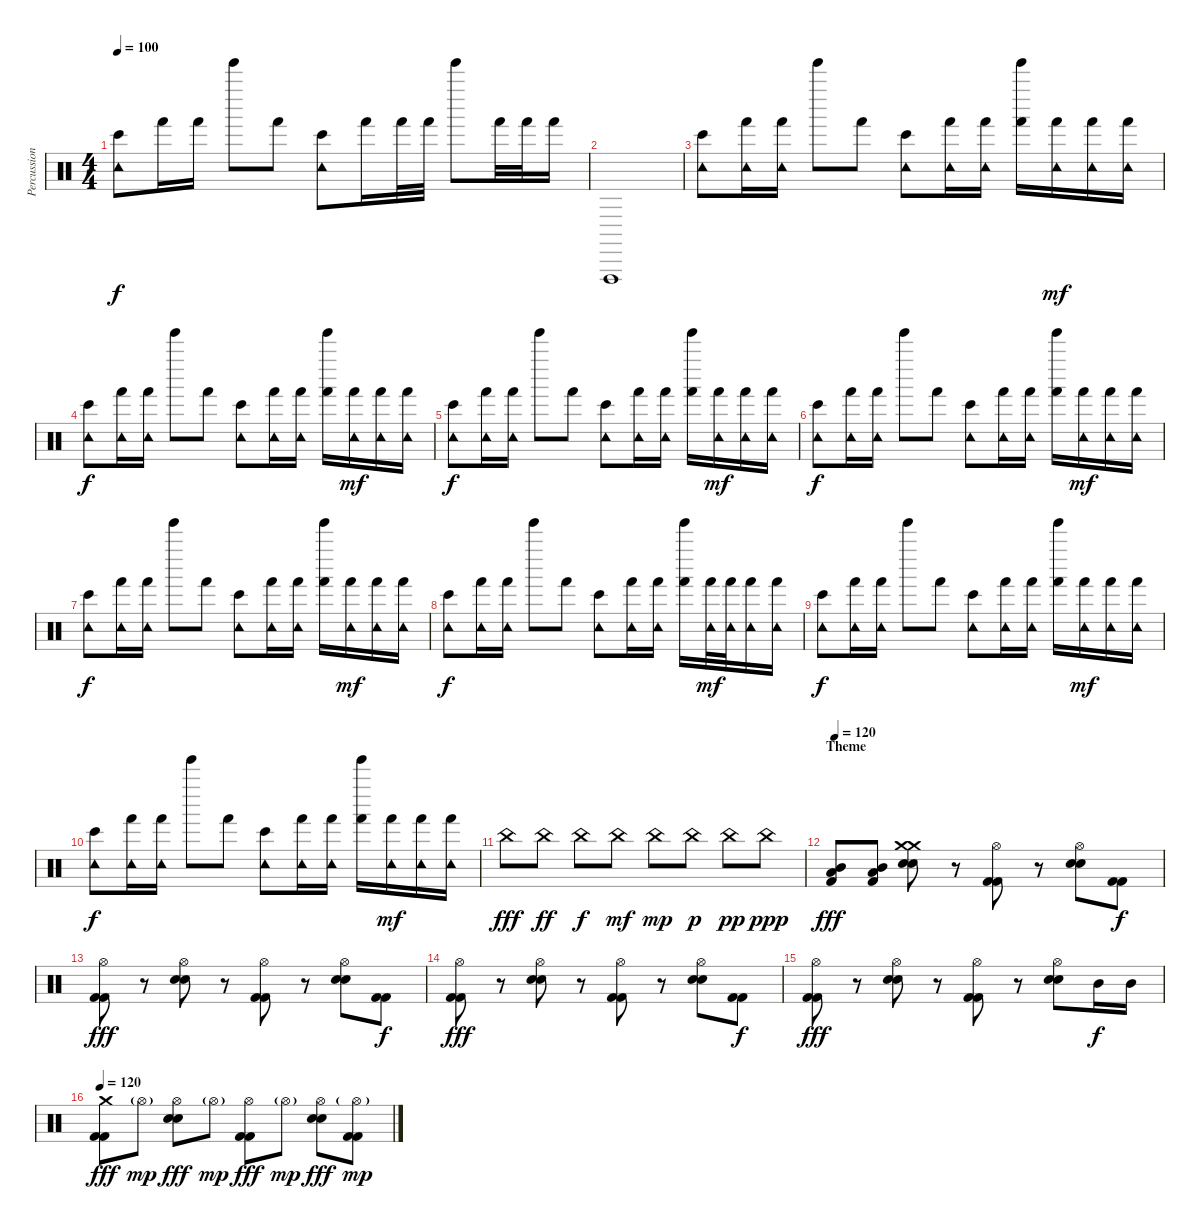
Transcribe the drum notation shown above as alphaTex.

\track ("Percussions" "Percussion") {instrument percussion}
\staff {score}
\articulation defaults
\ts (4 4)
\tempo 100
\clef neutral
\ks c
("Tambourine (hit)" "Bongo High (hit)").8{dy f} "Hand (hit)".16 "Hand (hit)".16 "Tinkle Bell (hit)".8 "Hand (hit)".8 ("Tambourine (hit)" "Bongo High (hit)").8 "Hand (hit)".16 "Hand (hit)".32 "Hand (hit)".32 "Tinkle Bell (hit)".8 "Hand (hit)".32 "Hand (hit)".32 "Hand (hit)".16 |
"Vibraslap (hit)".1 |
("Tambourine (hit)" "Bongo High (hit)").8 ("Tambourine (hit)" "Hand (hit)").16 ("Tambourine (hit)" "Hand (hit)").16 "Tinkle Bell (hit)".8 "Hand (hit)".8 ("Tambourine (hit)" "Bongo High (hit)").8 ("Tambourine (hit)" "Hand (hit)").16 ("Tambourine (hit)" "Hand (hit)").16 ("Tinkle Bell (hit)" "Hand (hit)").16 ("Tambourine (hit)" "Hand (hit)").16{dy mf} ("Tambourine (hit)" "Hand (hit)").16 ("Tambourine (hit)" "Hand (hit)").16 |
("Tambourine (hit)" "Bongo High (hit)").8{dy f} ("Tambourine (hit)" "Hand (hit)").16 ("Tambourine (hit)" "Hand (hit)").16 "Tinkle Bell (hit)".8 "Hand (hit)".8 ("Tambourine (hit)" "Bongo High (hit)").8 ("Tambourine (hit)" "Hand (hit)").16 ("Tambourine (hit)" "Hand (hit)").16 ("Tinkle Bell (hit)" "Hand (hit)").16 ("Tambourine (hit)" "Hand (hit)").16{dy mf} ("Tambourine (hit)" "Hand (hit)").16 ("Tambourine (hit)" "Hand (hit)").16 |
("Tambourine (hit)" "Bongo High (hit)").8{dy f} ("Tambourine (hit)" "Hand (hit)").16 ("Tambourine (hit)" "Hand (hit)").16 "Tinkle Bell (hit)".8 "Hand (hit)".8 ("Tambourine (hit)" "Bongo High (hit)").8 ("Tambourine (hit)" "Hand (hit)").16 ("Tambourine (hit)" "Hand (hit)").16 ("Tinkle Bell (hit)" "Hand (hit)").16 ("Tambourine (hit)" "Hand (hit)").16{dy mf} ("Tambourine (hit)" "Hand (hit)").16 ("Tambourine (hit)" "Hand (hit)").16 |
("Tambourine (hit)" "Bongo High (hit)").8{dy f} ("Tambourine (hit)" "Hand (hit)").16 ("Tambourine (hit)" "Hand (hit)").16 "Tinkle Bell (hit)".8 "Hand (hit)".8 ("Tambourine (hit)" "Bongo High (hit)").8 ("Tambourine (hit)" "Hand (hit)").16 ("Tambourine (hit)" "Hand (hit)").16 ("Tinkle Bell (hit)" "Hand (hit)").16 ("Tambourine (hit)" "Hand (hit)").16{dy mf} ("Tambourine (hit)" "Hand (hit)").16 ("Tambourine (hit)" "Hand (hit)").16 |
("Tambourine (hit)" "Bongo High (hit)").8{dy f} ("Tambourine (hit)" "Hand (hit)").16 ("Tambourine (hit)" "Hand (hit)").16 "Tinkle Bell (hit)".8 "Hand (hit)".8 ("Tambourine (hit)" "Bongo High (hit)").8 ("Tambourine (hit)" "Hand (hit)").16 ("Tambourine (hit)" "Hand (hit)").16 ("Tinkle Bell (hit)" "Hand (hit)").16 ("Tambourine (hit)" "Hand (hit)").16{dy mf} ("Tambourine (hit)" "Hand (hit)").16 ("Tambourine (hit)" "Hand (hit)").16 |
("Tambourine (hit)" "Bongo High (hit)").8{dy f} ("Tambourine (hit)" "Hand (hit)").16 ("Tambourine (hit)" "Hand (hit)").16 "Tinkle Bell (hit)".8 "Hand (hit)".8 ("Tambourine (hit)" "Bongo High (hit)").8 ("Tambourine (hit)" "Hand (hit)").16 ("Tambourine (hit)" "Hand (hit)").16 ("Tinkle Bell (hit)" "Hand (hit)").16 ("Tambourine (hit)" "Hand (hit)").32{dy mf} ("Tambourine (hit)" "Hand (hit)").32 ("Tambourine (hit)" "Hand (hit)").16 ("Tambourine (hit)" "Hand (hit)").16 |
("Tambourine (hit)" "Bongo High (hit)").8{dy f} ("Tambourine (hit)" "Hand (hit)").16 ("Tambourine (hit)" "Hand (hit)").16 "Tinkle Bell (hit)".8 "Hand (hit)".8 ("Tambourine (hit)" "Bongo High (hit)").8 ("Tambourine (hit)" "Hand (hit)").16 ("Tambourine (hit)" "Hand (hit)").16 ("Tinkle Bell (hit)" "Hand (hit)").16 ("Tambourine (hit)" "Hand (hit)").16{dy mf} ("Tambourine (hit)" "Hand (hit)").16 ("Tambourine (hit)" "Hand (hit)").16 |
("Tambourine (hit)" "Bongo High (hit)").8{dy f} ("Tambourine (hit)" "Hand (hit)").16 ("Tambourine (hit)" "Hand (hit)").16 "Tinkle Bell (hit)".8 "Hand (hit)".8 ("Tambourine (hit)" "Bongo High (hit)").8 ("Tambourine (hit)" "Hand (hit)").16 ("Tambourine (hit)" "Hand (hit)").16 ("Tinkle Bell (hit)" "Hand (hit)").16 ("Tambourine (hit)" "Hand (hit)").16{dy mf} ("Tambourine (hit)" "Hand (hit)").16 ("Tambourine (hit)" "Hand (hit)").16 |
"China (hit)".8{dy fff} "China (hit)".8{dy ff} "China (hit)".8{dy f} "China (hit)".8{dy mf} "China (hit)".8{dy mp} "China (hit)".8{dy p} "China (hit)".8{dy pp} "China (hit)".8{dy ppp} |
\section ("" "Theme")
\tempo 120
("Kick (hit) 2" "Low Tom (hit)" "Mid Tom (hit)").8{dy fff volume 16} ("Kick (hit) 2" "Low Tom (hit)" "Mid Tom (hit)").8 ("Electric Snare (hit)" "Electric Snare (hit)" "Crash medium (hit)" "Crash medium (hit)").8 r.8 ("Kick (hit) 2" "Kick (hit) 2" "Hi-Hat (open)").8 r.8 ("Electric Snare (hit)" "Electric Snare (hit)" "Hi-Hat (open)").8 ("Kick (hit) 2" "Kick (hit) 2").8{dy f} |
("Kick (hit) 2" "Kick (hit) 2" "Hi-Hat (open)").8{dy fff} r.8 ("Electric Snare (hit)" "Electric Snare (hit)" "Hi-Hat (open)").8 r.8 ("Kick (hit) 2" "Kick (hit) 2" "Hi-Hat (open)").8 r.8 ("Electric Snare (hit)" "Electric Snare (hit)" "Hi-Hat (open)").8 ("Kick (hit) 2" "Kick (hit) 2").8{dy f} |
("Kick (hit) 2" "Kick (hit) 2" "Hi-Hat (open)").8{dy fff} r.8 ("Electric Snare (hit)" "Electric Snare (hit)" "Hi-Hat (open)").8 r.8 ("Kick (hit) 2" "Kick (hit) 2" "Hi-Hat (open)").8 r.8 ("Electric Snare (hit)" "Electric Snare (hit)" "Hi-Hat (open)").8 ("Kick (hit) 2" "Kick (hit) 2").8{dy f} |
("Kick (hit) 2" "Kick (hit) 2" "Hi-Hat (open)").8{dy fff} r.8 ("Electric Snare (hit)" "Electric Snare (hit)" "Hi-Hat (open)").8 r.8 ("Kick (hit) 2" "Kick (hit) 2" "Hi-Hat (open)").8 r.8 ("Electric Snare (hit)" "Electric Snare (hit)" "Hi-Hat (open)").8 "Mid Tom (hit)".16{dy f} "Mid Tom (hit)".16 |
\tempo 120
("Kick (hit) 2" "Kick (hit) 2" "Crash medium (hit)").8{dy fff} "Hi-Hat (open)"{g}.8{dy mp} ("Electric Snare (hit)" "Electric Snare (hit)" "Hi-Hat (open)").8{dy fff} "Hi-Hat (open)"{g}.8{dy mp} ("Kick (hit) 2" "Kick (hit) 2" "Hi-Hat (open)").8{dy fff} "Hi-Hat (open)"{g}.8{dy mp} ("Electric Snare (hit)" "Electric Snare (hit)" "Hi-Hat (open)").8{dy fff} ("Kick (hit) 2" "Kick (hit) 2" "Hi-Hat (open)"{g}).8{dy mp}
